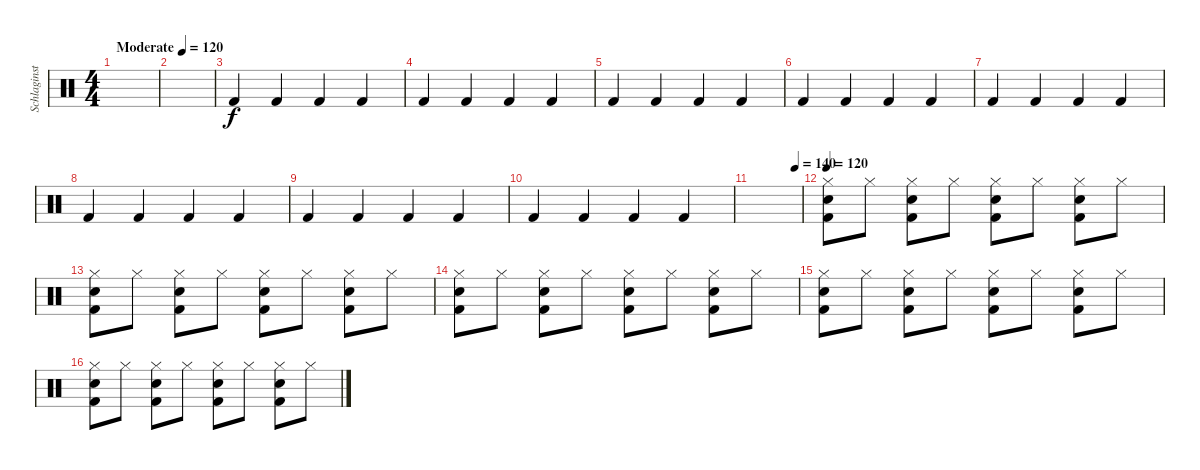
\track ("Schlaginstrumente - Auswahl" "Schlaginst") {instrument percussion}
\staff {score}
\articulation defaults
\ts (4 4)
\tempo (120 "Moderate")
\clef neutral
\ks c
|
|
"Kick (hit) 2".4 "Kick (hit) 2".4 "Kick (hit) 2".4 "Kick (hit) 2".4 |
"Kick (hit) 2".4 "Kick (hit) 2".4 "Kick (hit) 2".4 "Kick (hit) 2".4 |
"Kick (hit) 2".4 "Kick (hit) 2".4 "Kick (hit) 2".4 "Kick (hit) 2".4 |
"Kick (hit) 2".4 "Kick (hit) 2".4 "Kick (hit) 2".4 "Kick (hit) 2".4 |
"Kick (hit) 2".4 "Kick (hit) 2".4 "Kick (hit) 2".4 "Kick (hit) 2".4 |
"Kick (hit) 2".4 "Kick (hit) 2".4 "Kick (hit) 2".4 "Kick (hit) 2".4 |
"Kick (hit) 2".4 "Kick (hit) 2".4 "Kick (hit) 2".4 "Kick (hit) 2".4 |
"Kick (hit) 2".4 "Kick (hit) 2".4 "Kick (hit) 2".4 "Kick (hit) 2".4 |
\tempo (140 0.875)
|
\tempo 120
("Hi-Hat (closed)" "Snare (hit) 2" "Kick (hit) 2").8 "Hi-Hat (closed)".8 ("Hi-Hat (closed)" "Snare (hit) 2" "Kick (hit) 2").8 "Hi-Hat (closed)".8 ("Hi-Hat (closed)" "Snare (hit) 2" "Kick (hit) 2").8 "Hi-Hat (closed)".8 ("Hi-Hat (closed)" "Snare (hit) 2" "Kick (hit) 2").8 "Hi-Hat (closed)".8 |
("Hi-Hat (closed)" "Snare (hit) 2" "Kick (hit) 2").8 "Hi-Hat (closed)".8 ("Hi-Hat (closed)" "Snare (hit) 2" "Kick (hit) 2").8 "Hi-Hat (closed)".8 ("Hi-Hat (closed)" "Snare (hit) 2" "Kick (hit) 2").8 "Hi-Hat (closed)".8 ("Hi-Hat (closed)" "Snare (hit) 2" "Kick (hit) 2").8 "Hi-Hat (closed)".8 |
("Hi-Hat (closed)" "Snare (hit) 2" "Kick (hit) 2").8 "Hi-Hat (closed)".8 ("Hi-Hat (closed)" "Snare (hit) 2" "Kick (hit) 2").8 "Hi-Hat (closed)".8 ("Hi-Hat (closed)" "Snare (hit) 2" "Kick (hit) 2").8 "Hi-Hat (closed)".8 ("Hi-Hat (closed)" "Snare (hit) 2" "Kick (hit) 2").8 "Hi-Hat (closed)".8 |
("Hi-Hat (closed)" "Snare (hit) 2" "Kick (hit) 2").8 "Hi-Hat (closed)".8 ("Hi-Hat (closed)" "Snare (hit) 2" "Kick (hit) 2").8 "Hi-Hat (closed)".8 ("Hi-Hat (closed)" "Snare (hit) 2" "Kick (hit) 2").8 "Hi-Hat (closed)".8 ("Hi-Hat (closed)" "Snare (hit) 2" "Kick (hit) 2").8 "Hi-Hat (closed)".8 |
("Hi-Hat (closed)" "Snare (hit) 2" "Kick (hit) 2").8 "Hi-Hat (closed)".8 ("Hi-Hat (closed)" "Snare (hit) 2" "Kick (hit) 2").8 "Hi-Hat (closed)".8 ("Hi-Hat (closed)" "Snare (hit) 2" "Kick (hit) 2").8 "Hi-Hat (closed)".8 ("Hi-Hat (closed)" "Snare (hit) 2" "Kick (hit) 2").8 "Hi-Hat (closed)".8
